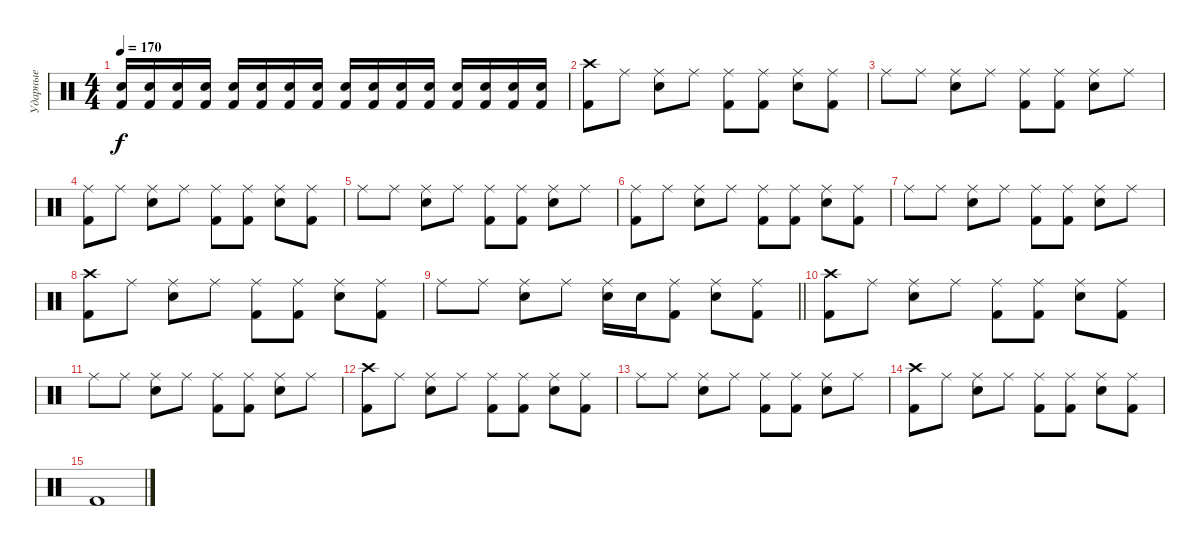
\track ("Ударные" "Ударные") {instrument percussion}
\staff {score}
\articulation defaults
\ts (4 4)
\tempo 170
\clef neutral
\ks c
("Electric Snare (hit)" "Kick (hit) 2").16{dy f} ("Electric Snare (hit)" "Kick (hit) 2").16 ("Electric Snare (hit)" "Kick (hit) 2").16 ("Electric Snare (hit)" "Kick (hit) 2").16 ("Electric Snare (hit)" "Kick (hit) 2").16 ("Electric Snare (hit)" "Kick (hit) 2").16 ("Electric Snare (hit)" "Kick (hit) 2").16 ("Electric Snare (hit)" "Kick (hit) 2").16 ("Electric Snare (hit)" "Kick (hit) 2").16 ("Electric Snare (hit)" "Kick (hit) 2").16 ("Electric Snare (hit)" "Kick (hit) 2").16 ("Electric Snare (hit)" "Kick (hit) 2").16 ("Electric Snare (hit)" "Kick (hit) 2").16 ("Electric Snare (hit)" "Kick (hit) 2").16 ("Electric Snare (hit)" "Kick (hit) 2").16 ("Electric Snare (hit)" "Kick (hit) 2").16 |
("Crash high (hit)" "Kick (hit) 2").8 "Ride (middle)".8 ("Ride (middle)" "Electric Snare (hit)").8 "Ride (middle)".8 ("Ride (middle)" "Kick (hit) 2").8 ("Ride (middle)" "Kick (hit) 2").8 ("Ride (middle)" "Electric Snare (hit)").8 ("Ride (middle)" "Kick (hit) 2").8 |
"Ride (middle)".8 "Ride (middle)".8 ("Ride (middle)" "Electric Snare (hit)").8 "Ride (middle)".8 ("Ride (middle)" "Kick (hit) 2").8 ("Ride (middle)" "Kick (hit) 2").8 ("Ride (middle)" "Electric Snare (hit)").8 "Ride (middle)".8 |
("Ride (middle)" "Kick (hit) 2").8 "Ride (middle)".8 ("Ride (middle)" "Electric Snare (hit)").8 "Ride (middle)".8 ("Ride (middle)" "Kick (hit) 2").8 ("Ride (middle)" "Kick (hit) 2").8 ("Ride (middle)" "Electric Snare (hit)").8 ("Ride (middle)" "Kick (hit) 2").8 |
"Ride (middle)".8 "Ride (middle)".8 ("Ride (middle)" "Electric Snare (hit)").8 "Ride (middle)".8 ("Ride (middle)" "Kick (hit) 2").8 ("Ride (middle)" "Kick (hit) 2").8 ("Ride (middle)" "Electric Snare (hit)").8 "Ride (middle)".8 |
("Ride (middle)" "Kick (hit) 2").8 "Ride (middle)".8 ("Ride (middle)" "Electric Snare (hit)").8 "Ride (middle)".8 ("Ride (middle)" "Kick (hit) 2").8 ("Ride (middle)" "Kick (hit) 2").8 ("Ride (middle)" "Electric Snare (hit)").8 ("Ride (middle)" "Kick (hit) 2").8 |
"Ride (middle)".8 "Ride (middle)".8 ("Ride (middle)" "Electric Snare (hit)").8 "Ride (middle)".8 ("Ride (middle)" "Kick (hit) 2").8 ("Ride (middle)" "Kick (hit) 2").8 ("Ride (middle)" "Electric Snare (hit)").8 "Ride (middle)".8 |
("Crash high (hit)" "Kick (hit) 2").8 "Ride (middle)".8 ("Ride (middle)" "Electric Snare (hit)").8 "Ride (middle)".8 ("Ride (middle)" "Kick (hit) 2").8 ("Ride (middle)" "Kick (hit) 2").8 ("Ride (middle)" "Electric Snare (hit)").8 ("Ride (middle)" "Kick (hit) 2").8 |
\barLineRight lightlight "Ride (middle)".8 "Ride (middle)".8
("Ride (middle)" "Electric Snare (hit)").8 "Ride (middle)".8 ("Ride (middle)" "Electric Snare (hit)").16 "Electric Snare (hit)".16 ("Ride (middle)" "Kick (hit) 2").8 ("Ride (middle)" "Electric Snare (hit)").8 ("Ride (middle)" "Kick (hit) 2").8 |
("Crash high (hit)" "Kick (hit) 2").8 "Ride (middle)".8 ("Ride (middle)" "Electric Snare (hit)").8 "Ride (middle)".8 ("Ride (middle)" "Kick (hit) 2").8 ("Ride (middle)" "Kick (hit) 2").8 ("Ride (middle)" "Electric Snare (hit)").8 ("Ride (middle)" "Kick (hit) 2").8 |
"Ride (middle)".8 "Ride (middle)".8 ("Ride (middle)" "Electric Snare (hit)").8 "Ride (middle)".8 ("Ride (middle)" "Kick (hit) 2").8 ("Ride (middle)" "Kick (hit) 2").8 ("Ride (middle)" "Electric Snare (hit)").8 "Ride (middle)".8 |
("Crash high (hit)" "Kick (hit) 2").8 "Ride (middle)".8 ("Ride (middle)" "Electric Snare (hit)").8 "Ride (middle)".8 ("Ride (middle)" "Kick (hit) 2").8 ("Ride (middle)" "Kick (hit) 2").8 ("Ride (middle)" "Electric Snare (hit)").8 ("Ride (middle)" "Kick (hit) 2").8 |
"Ride (middle)".8 "Ride (middle)".8 ("Ride (middle)" "Electric Snare (hit)").8 "Ride (middle)".8 ("Ride (middle)" "Kick (hit) 2").8 ("Ride (middle)" "Kick (hit) 2").8 ("Ride (middle)" "Electric Snare (hit)").8 "Ride (middle)".8 |
("Crash high (hit)" "Kick (hit) 2").8 "Ride (middle)".8 ("Ride (middle)" "Electric Snare (hit)").8 "Ride (middle)".8 ("Ride (middle)" "Kick (hit) 2").8 ("Ride (middle)" "Kick (hit) 2").8 ("Ride (middle)" "Electric Snare (hit)").8 ("Ride (middle)" "Kick (hit) 2").8 |
"Kick (hit) 2".1
